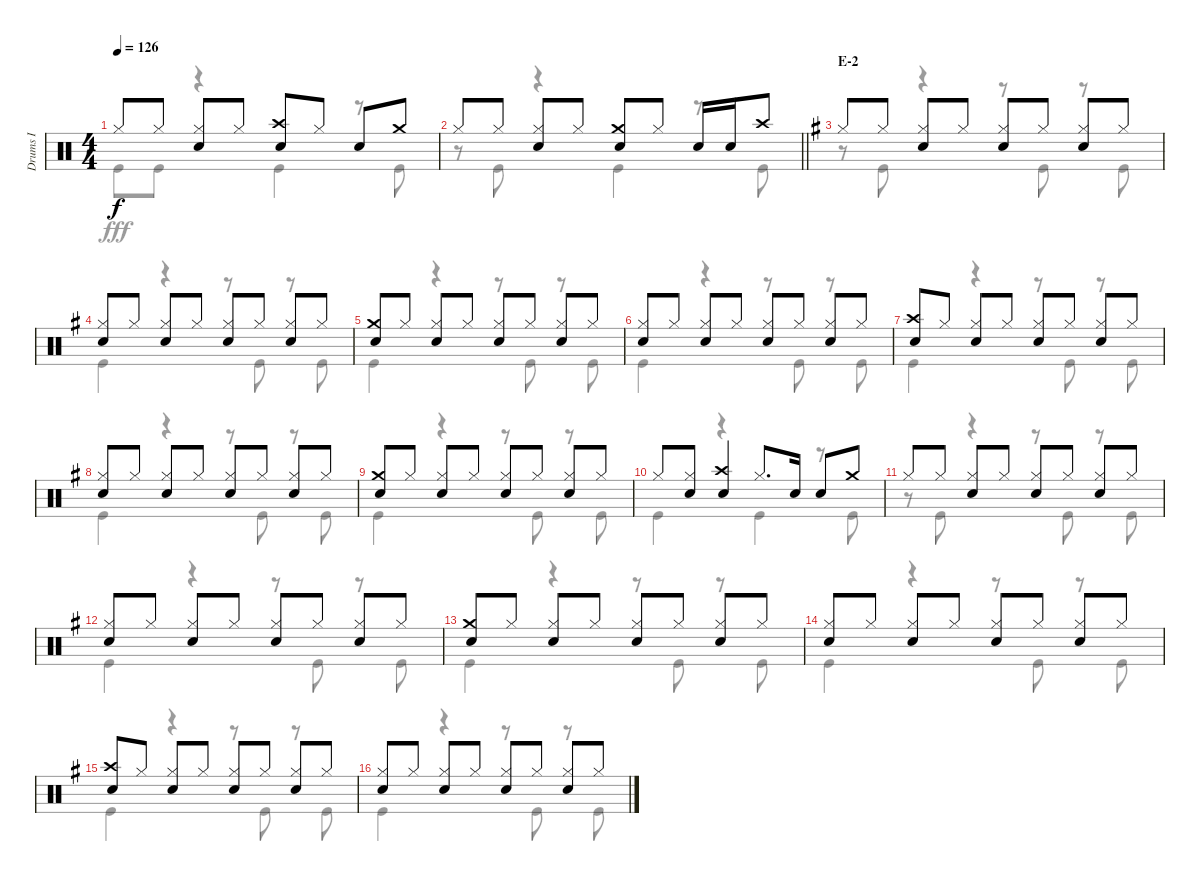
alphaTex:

\track ("Drums I" "Drums I") {instrument percussion}
\staff {score}
\articulation defaults
\voice
\ts (4 4)
\tempo 126
\clef neutral
\ks c "Hi-Hat (closed)".8{dy f} "Hi-Hat (closed)".8
("Hi-Hat (closed)" "Snare (hit) 2").8 "Hi-Hat (closed)".8 ("Crash high (hit)" "Snare (hit) 2").8 "Hi-Hat (closed)".8 "Snare (hit) 2".8 "Crash medium (hit)".8 |
\barLineRight lightlight "Hi-Hat (closed)".8 "Hi-Hat (closed)".8
("Hi-Hat (closed)" "Snare (hit) 2").8 "Hi-Hat (closed)".8 ("Crash medium (hit)" "Snare (hit) 2").8 "Hi-Hat (closed)".8 "Snare (hit) 2".16 "Snare (hit) 2".16 "Crash high (hit)".8 |
\section ("" "E-2")
\ks g "Hi-Hat (closed)".8 "Hi-Hat (closed)".8
("Hi-Hat (closed)" "Snare (hit) 2").8 "Hi-Hat (closed)".8 ("Hi-Hat (closed)" "Snare (hit) 2").8 "Hi-Hat (closed)".8 ("Hi-Hat (closed)" "Snare (hit) 2").8 "Hi-Hat (closed)".8 |
("Hi-Hat (closed)" "Snare (hit) 2").8 "Hi-Hat (closed)".8 ("Hi-Hat (closed)" "Snare (hit) 2").8 "Hi-Hat (closed)".8 ("Hi-Hat (closed)" "Snare (hit) 2").8 "Hi-Hat (closed)".8 ("Hi-Hat (closed)" "Snare (hit) 2").8 "Hi-Hat (closed)".8 |
("Crash medium (hit)" "Snare (hit) 2").8 "Hi-Hat (closed)".8 ("Hi-Hat (closed)" "Snare (hit) 2").8 "Hi-Hat (closed)".8 ("Hi-Hat (closed)" "Snare (hit) 2").8 "Hi-Hat (closed)".8 ("Hi-Hat (closed)" "Snare (hit) 2").8 "Hi-Hat (closed)".8 |
("Hi-Hat (closed)" "Snare (hit) 2").8 "Hi-Hat (closed)".8 ("Hi-Hat (closed)" "Snare (hit) 2").8 "Hi-Hat (closed)".8 ("Hi-Hat (closed)" "Snare (hit) 2").8 "Hi-Hat (closed)".8 ("Hi-Hat (closed)" "Snare (hit) 2").8 "Hi-Hat (closed)".8 |
("Crash high (hit)" "Snare (hit) 2").8 "Hi-Hat (closed)".8 ("Hi-Hat (closed)" "Snare (hit) 2").8 "Hi-Hat (closed)".8 ("Hi-Hat (closed)" "Snare (hit) 2").8 "Hi-Hat (closed)".8 ("Hi-Hat (closed)" "Snare (hit) 2").8 "Hi-Hat (closed)".8 |
("Hi-Hat (closed)" "Snare (hit) 2").8 "Hi-Hat (closed)".8 ("Hi-Hat (closed)" "Snare (hit) 2").8 "Hi-Hat (closed)".8 ("Hi-Hat (closed)" "Snare (hit) 2").8 "Hi-Hat (closed)".8 ("Hi-Hat (closed)" "Snare (hit) 2").8 "Hi-Hat (closed)".8 |
("Crash medium (hit)" "Snare (hit) 2").8 "Hi-Hat (closed)".8 ("Hi-Hat (closed)" "Snare (hit) 2").8 "Hi-Hat (closed)".8 ("Hi-Hat (closed)" "Snare (hit) 2").8 "Hi-Hat (closed)".8 ("Hi-Hat (closed)" "Snare (hit) 2").8 "Hi-Hat (closed)".8 |
"Hi-Hat (closed)".8 ("Hi-Hat (closed)" "Snare (hit) 2").8 ("Crash high (hit)" "Snare (hit) 2").4 "Hi-Hat (closed)".8{d} "Snare (hit) 2".16 "Snare (hit) 2".8 "Crash medium (hit)".8 |
"Hi-Hat (closed)".8 "Hi-Hat (closed)".8 ("Hi-Hat (closed)" "Snare (hit) 2").8 "Hi-Hat (closed)".8 ("Hi-Hat (closed)" "Snare (hit) 2").8 "Hi-Hat (closed)".8 ("Hi-Hat (closed)" "Snare (hit) 2").8 "Hi-Hat (closed)".8 |
("Hi-Hat (closed)" "Snare (hit) 2").8 "Hi-Hat (closed)".8 ("Hi-Hat (closed)" "Snare (hit) 2").8 "Hi-Hat (closed)".8 ("Hi-Hat (closed)" "Snare (hit) 2").8 "Hi-Hat (closed)".8 ("Hi-Hat (closed)" "Snare (hit) 2").8 "Hi-Hat (closed)".8 |
("Crash medium (hit)" "Snare (hit) 2").8 "Hi-Hat (closed)".8 ("Hi-Hat (closed)" "Snare (hit) 2").8 "Hi-Hat (closed)".8 ("Hi-Hat (closed)" "Snare (hit) 2").8 "Hi-Hat (closed)".8 ("Hi-Hat (closed)" "Snare (hit) 2").8 "Hi-Hat (closed)".8 |
("Hi-Hat (closed)" "Snare (hit) 2").8 "Hi-Hat (closed)".8 ("Hi-Hat (closed)" "Snare (hit) 2").8 "Hi-Hat (closed)".8 ("Hi-Hat (closed)" "Snare (hit) 2").8 "Hi-Hat (closed)".8 ("Hi-Hat (closed)" "Snare (hit) 2").8 "Hi-Hat (closed)".8 |
("Crash high (hit)" "Snare (hit) 2").8 "Hi-Hat (closed)".8 ("Hi-Hat (closed)" "Snare (hit) 2").8 "Hi-Hat (closed)".8 ("Hi-Hat (closed)" "Snare (hit) 2").8 "Hi-Hat (closed)".8 ("Hi-Hat (closed)" "Snare (hit) 2").8 "Hi-Hat (closed)".8 |
("Hi-Hat (closed)" "Snare (hit) 2").8 "Hi-Hat (closed)".8 ("Hi-Hat (closed)" "Snare (hit) 2").8 "Hi-Hat (closed)".8 ("Hi-Hat (closed)" "Snare (hit) 2").8 "Hi-Hat (closed)".8 ("Hi-Hat (closed)" "Snare (hit) 2").8 "Hi-Hat (closed)".8
\voice
\clef neutral
\ottava regular
\simile none
\ks c "Kick (hit)".8{dy fff} "Kick (hit)".8
r.4 "Kick (hit)".4 r.8 "Kick (hit)".8 |
\barLineRight lightlight
r.8 "Kick (hit)".8 r.4 "Kick (hit)".4 r.8 "Kick (hit)".8 |
\ks g
r.8 "Kick (hit)".8 r.4 r.8 "Kick (hit)".8 r.8 "Kick (hit)".8 |
"Kick (hit)".4 r.4 r.8 "Kick (hit)".8 r.8 "Kick (hit)".8 |
"Kick (hit)".4 r.4 r.8 "Kick (hit)".8 r.8 "Kick (hit)".8 |
"Kick (hit)".4 r.4 r.8 "Kick (hit)".8 r.8 "Kick (hit)".8 |
"Kick (hit)".4 r.4 r.8 "Kick (hit)".8 r.8 "Kick (hit)".8 |
"Kick (hit)".4 r.4 r.8 "Kick (hit)".8 r.8 "Kick (hit)".8 |
"Kick (hit)".4 r.4 r.8 "Kick (hit)".8 r.8 "Kick (hit)".8 |
"Kick (hit)".4 r.4 "Kick (hit)".4 r.8 "Kick (hit)".8 |
r.8 "Kick (hit)".8 r.4 r.8 "Kick (hit)".8 r.8 "Kick (hit)".8 |
"Kick (hit)".4 r.4 r.8 "Kick (hit)".8 r.8 "Kick (hit)".8 |
"Kick (hit)".4 r.4 r.8 "Kick (hit)".8 r.8 "Kick (hit)".8 |
"Kick (hit)".4 r.4 r.8 "Kick (hit)".8 r.8 "Kick (hit)".8 |
"Kick (hit)".4 r.4 r.8 "Kick (hit)".8 r.8 "Kick (hit)".8 |
"Kick (hit)".4 r.4 r.8 "Kick (hit)".8 r.8 "Kick (hit)".8
